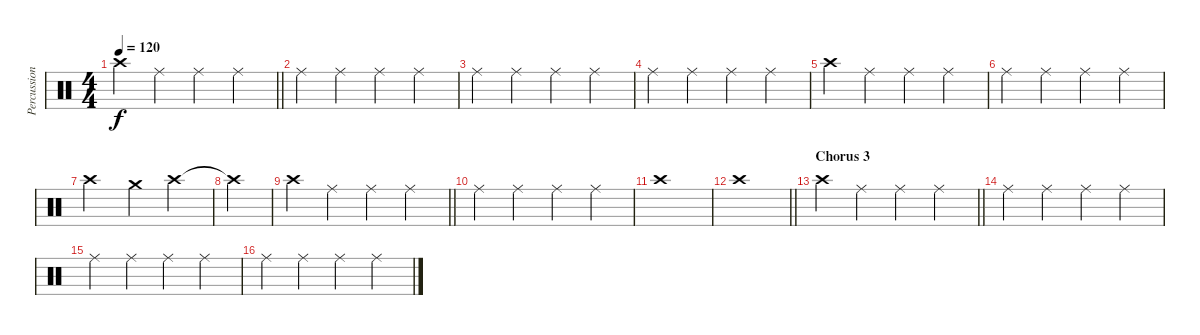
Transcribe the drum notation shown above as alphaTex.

\track ("Percussion" "Percussion") {instrument percussion}
\staff {score}
\articulation defaults
\ts (4 4)
\tempo 120
\clef neutral
\barLineRight lightlight
\ks c "Crash high (hit)".4{dy f} "Ride (middle)".4 "Ride (middle)".4 "Ride (middle)".4
|
"Ride (middle)".4 "Ride (middle)".4 "Ride (middle)".4 "Ride (middle)".4 |
"Ride (middle)".4 "Ride (middle)".4 "Ride (middle)".4 "Ride (middle)".4 |
"Ride (middle)".4 "Ride (middle)".4 "Ride (middle)".4 "Ride (middle)".4 |
"Crash high (hit)".4 "Ride (middle)".4 "Ride (middle)".4 "Ride (middle)".4 |
"Ride (middle)".4 "Ride (middle)".4 "Ride (middle)".4 "Ride (middle)".4 |
"Crash high (hit)".2 "Crash medium (hit)".4 "Crash high (hit)".4 |
"Crash high (hit)"{t}.4 |
\barLineRight lightlight "Crash high (hit)".4 "Ride (middle)".4 "Ride (middle)".4 "Ride (middle)".4
|
"Ride (middle)".4 "Ride (middle)".4 "Ride (middle)".4 "Ride (middle)".4 |
"Crash high (hit)".1 |
\barLineRight lightlight "Crash high (hit)".1
|
\section ("" "Chorus 3")
\barLineRight lightlight "Crash high (hit)".4 "Ride (middle)".4 "Ride (middle)".4 "Ride (middle)".4
|
"Ride (middle)".4 "Ride (middle)".4 "Ride (middle)".4 "Ride (middle)".4 |
"Ride (middle)".4 "Ride (middle)".4 "Ride (middle)".4 "Ride (middle)".4 |
"Ride (middle)".4 "Ride (middle)".4 "Ride (middle)".4 "Ride (middle)".4
